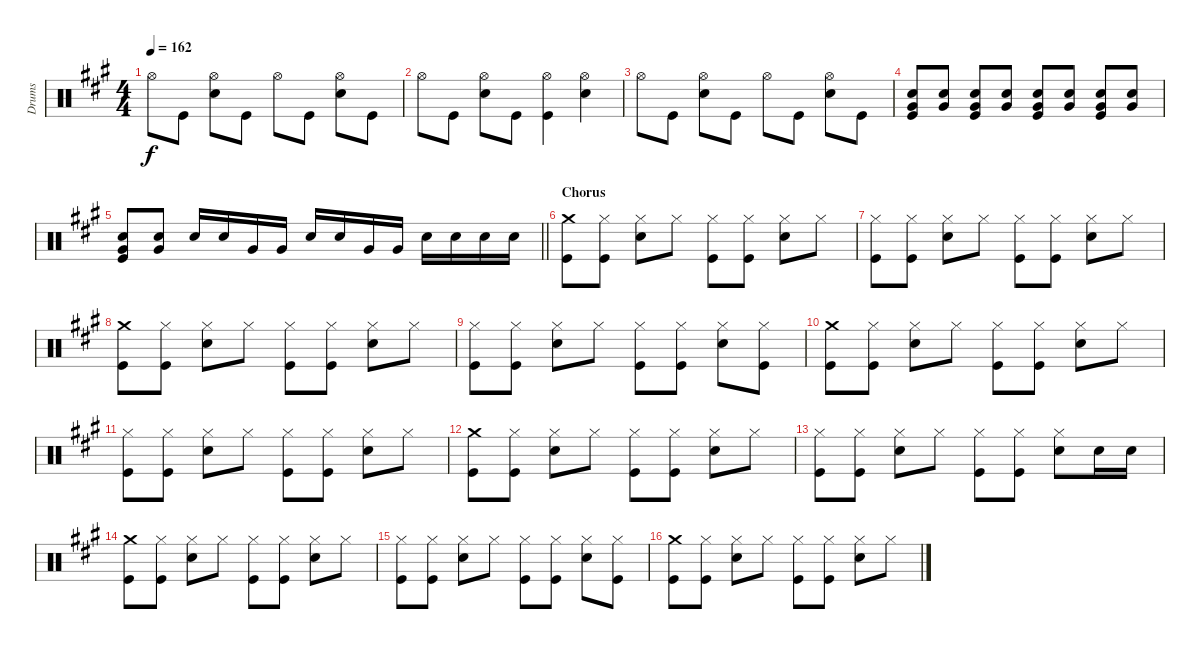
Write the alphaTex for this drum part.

\track ("Drums" "Drums") {instrument percussion}
\staff {score}
\articulation defaults
\ts (4 4)
\tempo 162
\clef neutral
\ks a "Hi-Hat (open)".8{dy f} "Kick (hit)".8
("Snare (hit) 2" "Hi-Hat (open)").8 "Kick (hit)".8 "Hi-Hat (open)".8 "Kick (hit)".8 ("Snare (hit) 2" "Hi-Hat (open)").8 "Kick (hit)".8 |
"Hi-Hat (open)".8 "Kick (hit)".8 ("Snare (hit) 2" "Hi-Hat (open)").8 "Kick (hit)".8 ("Hi-Hat (open)" "Kick (hit)").4 ("Snare (hit) 2" "Hi-Hat (open)").4 |
"Hi-Hat (open)".8 "Kick (hit)".8 ("Snare (hit) 2" "Hi-Hat (open)").8 "Kick (hit)".8 "Hi-Hat (open)".8 "Kick (hit)".8 ("Snare (hit) 2" "Hi-Hat (open)").8 "Kick (hit)".8 |
("Kick (hit)" "Very Low Tom (hit)" "Snare (hit) 2").8 ("Snare (hit) 2" "Very Low Tom (hit)").8 ("Kick (hit)" "Very Low Tom (hit)" "Snare (hit) 2").8 ("Snare (hit) 2" "Very Low Tom (hit)").8 ("Kick (hit)" "Very Low Tom (hit)" "Snare (hit) 2").8 ("Snare (hit) 2" "Very Low Tom (hit)").8 ("Kick (hit)" "Very Low Tom (hit)" "Snare (hit) 2").8 ("Snare (hit) 2" "Very Low Tom (hit)").8 |
\barLineRight lightlight
("Kick (hit)" "Very Low Tom (hit)" "Snare (hit) 2").8 ("Snare (hit) 2" "Very Low Tom (hit)").8 "Snare (hit) 2".16 "Snare (hit) 2".16 "Very Low Tom (hit)".16 "Very Low Tom (hit)".16 "Snare (hit) 2".16 "Snare (hit) 2".16 "Very Low Tom (hit)".16 "Very Low Tom (hit)".16 "Snare (hit) 2".16 "Snare (hit) 2".16 "Snare (hit) 2".16 "Snare (hit) 2".16 |
\section ("" "Chorus")
("Kick (hit)" "Crash medium (hit)").8 ("Kick (hit)" "Hi-Hat (closed)").8 ("Snare (hit) 2" "Hi-Hat (closed)").8 "Hi-Hat (closed)".8 ("Kick (hit)" "Hi-Hat (closed)").8 ("Kick (hit)" "Hi-Hat (closed)").8 ("Snare (hit) 2" "Hi-Hat (closed)").8 "Hi-Hat (closed)".8 |
("Kick (hit)" "Hi-Hat (closed)").8 ("Kick (hit)" "Hi-Hat (closed)").8 ("Snare (hit) 2" "Hi-Hat (closed)").8 "Hi-Hat (closed)".8 ("Kick (hit)" "Hi-Hat (closed)").8 ("Kick (hit)" "Hi-Hat (closed)").8 ("Snare (hit) 2" "Hi-Hat (closed)").8 "Hi-Hat (closed)".8 |
("Kick (hit)" "Crash medium (hit)").8 ("Kick (hit)" "Hi-Hat (closed)").8 ("Snare (hit) 2" "Hi-Hat (closed)").8 "Hi-Hat (closed)".8 ("Kick (hit)" "Hi-Hat (closed)").8 ("Kick (hit)" "Hi-Hat (closed)").8 ("Snare (hit) 2" "Hi-Hat (closed)").8 "Hi-Hat (closed)".8 |
("Kick (hit)" "Hi-Hat (closed)").8 ("Kick (hit)" "Hi-Hat (closed)").8 ("Snare (hit) 2" "Hi-Hat (closed)").8 "Hi-Hat (closed)".8 ("Kick (hit)" "Hi-Hat (closed)").8 ("Kick (hit)" "Hi-Hat (closed)").8 ("Snare (hit) 2" "Hi-Hat (closed)").8 ("Kick (hit)" "Hi-Hat (closed)").8 |
("Kick (hit)" "Crash medium (hit)").8 ("Kick (hit)" "Hi-Hat (closed)").8 ("Snare (hit) 2" "Hi-Hat (closed)").8 "Hi-Hat (closed)".8 ("Kick (hit)" "Hi-Hat (closed)").8 ("Kick (hit)" "Hi-Hat (closed)").8 ("Snare (hit) 2" "Hi-Hat (closed)").8 "Hi-Hat (closed)".8 |
("Kick (hit)" "Hi-Hat (closed)").8 ("Kick (hit)" "Hi-Hat (closed)").8 ("Snare (hit) 2" "Hi-Hat (closed)").8 "Hi-Hat (closed)".8 ("Kick (hit)" "Hi-Hat (closed)").8 ("Kick (hit)" "Hi-Hat (closed)").8 ("Snare (hit) 2" "Hi-Hat (closed)").8 "Hi-Hat (closed)".8 |
("Kick (hit)" "Crash medium (hit)").8 ("Kick (hit)" "Hi-Hat (closed)").8 ("Snare (hit) 2" "Hi-Hat (closed)").8 "Hi-Hat (closed)".8 ("Kick (hit)" "Hi-Hat (closed)").8 ("Kick (hit)" "Hi-Hat (closed)").8 ("Snare (hit) 2" "Hi-Hat (closed)").8 "Hi-Hat (closed)".8 |
("Kick (hit)" "Hi-Hat (closed)").8 ("Kick (hit)" "Hi-Hat (closed)").8 ("Snare (hit) 2" "Hi-Hat (closed)").8 "Hi-Hat (closed)".8 ("Kick (hit)" "Hi-Hat (closed)").8 ("Kick (hit)" "Hi-Hat (closed)").8 ("Snare (hit) 2" "Hi-Hat (closed)").8 "Snare (hit) 2".16 "Snare (hit) 2".16 |
("Kick (hit)" "Crash medium (hit)").8 ("Kick (hit)" "Hi-Hat (closed)").8 ("Snare (hit) 2" "Hi-Hat (closed)").8 "Hi-Hat (closed)".8 ("Kick (hit)" "Hi-Hat (closed)").8 ("Kick (hit)" "Hi-Hat (closed)").8 ("Snare (hit) 2" "Hi-Hat (closed)").8 "Hi-Hat (closed)".8 |
("Kick (hit)" "Hi-Hat (closed)").8 ("Kick (hit)" "Hi-Hat (closed)").8 ("Snare (hit) 2" "Hi-Hat (closed)").8 "Hi-Hat (closed)".8 ("Kick (hit)" "Hi-Hat (closed)").8 ("Kick (hit)" "Hi-Hat (closed)").8 ("Snare (hit) 2" "Hi-Hat (closed)").8 ("Kick (hit)" "Hi-Hat (closed)").8 |
("Kick (hit)" "Crash medium (hit)").8 ("Kick (hit)" "Hi-Hat (closed)").8 ("Snare (hit) 2" "Hi-Hat (closed)").8 "Hi-Hat (closed)".8 ("Kick (hit)" "Hi-Hat (closed)").8 ("Kick (hit)" "Hi-Hat (closed)").8 ("Snare (hit) 2" "Hi-Hat (closed)").8 "Hi-Hat (closed)".8
